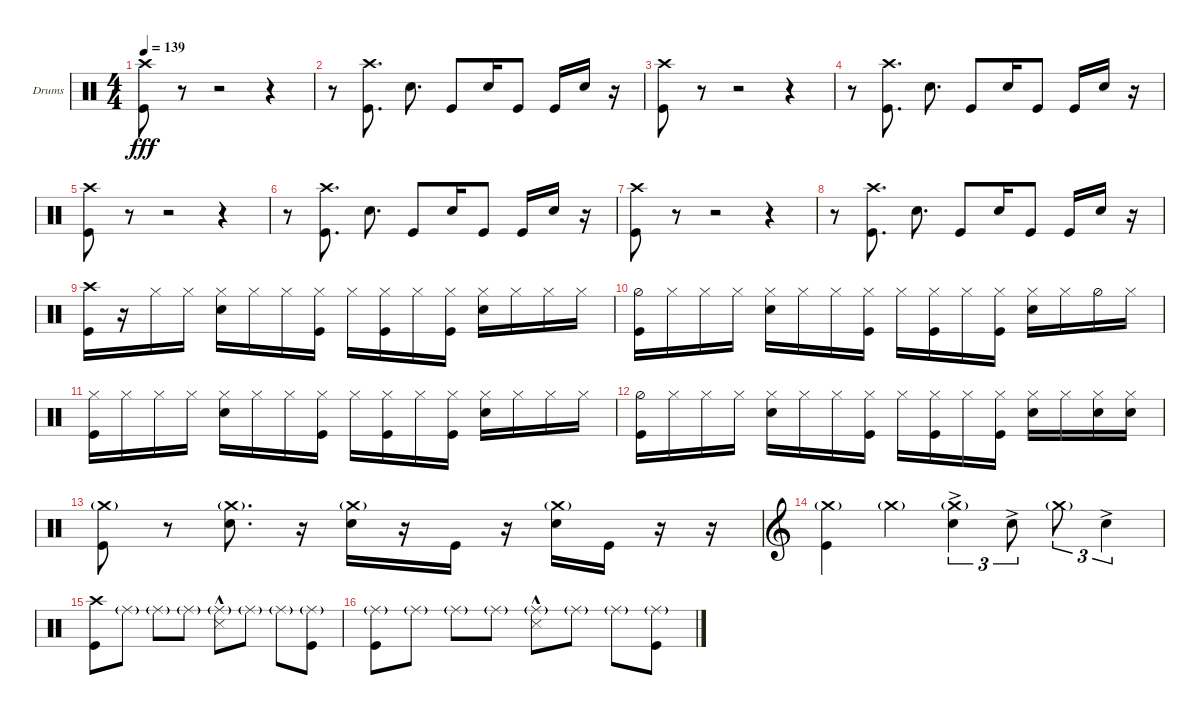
\defaultSystemsLayout 4
\bracketExtendMode groupsimilarinstruments
\firstSystemTrackNameOrientation horizontal
\otherSystemsTrackNameOrientation horizontal
\track ("Drumkit" "Drums") {instrument percussion}
\staff {score}
\articulation defaults
\ts (4 4)
\tempo 139
\clef neutral
\ks c
("Kick (hit)" "Crash high (hit)").8{dy fff} r.8 r.2 r.4 |
r.8 ("Crash high (hit)" "Kick (hit)").8{d} "Snare (hit) 2".8{d} "Kick (hit)".8 "Snare (hit) 2".16 "Kick (hit)".8 "Kick (hit)".16 "Snare (hit) 2".16 r.16 |
("Kick (hit)" "Crash high (hit)").8 r.8 r.2 r.4 |
r.8 ("Crash high (hit)" "Kick (hit)").8{d} "Snare (hit) 2".8{d} "Kick (hit)".8 "Snare (hit) 2".16 "Kick (hit)".8 "Kick (hit)".16 "Snare (hit) 2".16 r.16 |
("Kick (hit)" "Crash high (hit)").8 r.8 r.2 r.4 |
r.8 ("Crash high (hit)" "Kick (hit)").8{d} "Snare (hit) 2".8{d} "Kick (hit)".8 "Snare (hit) 2".16 "Kick (hit)".8 "Kick (hit)".16 "Snare (hit) 2".16 r.16 |
("Kick (hit)" "Crash high (hit)").8 r.8 r.2 r.4 |
r.8 ("Crash high (hit)" "Kick (hit)").8{d} "Snare (hit) 2".8{d} "Kick (hit)".8 "Snare (hit) 2".16 "Kick (hit)".8 "Kick (hit)".16 "Snare (hit) 2".16 r.16 |
("Kick (hit)" "Crash high (hit)").16 r.16 "Hi-Hat (closed)".16 "Hi-Hat (closed)".16 ("Hi-Hat (closed)" "Snare (hit) 2").16 "Hi-Hat (closed)".16 "Hi-Hat (closed)".16 ("Hi-Hat (closed)" "Kick (hit)").16 "Hi-Hat (closed)".16 ("Hi-Hat (closed)" "Kick (hit)").16 "Hi-Hat (closed)".16 ("Hi-Hat (closed)" "Kick (hit)").16 ("Hi-Hat (closed)" "Snare (hit) 2").16 "Hi-Hat (closed)".16 "Hi-Hat (closed)".16 "Hi-Hat (closed)".16 |
("Hi-Hat (half)" "Kick (hit)").16 "Hi-Hat (closed)".16 "Hi-Hat (closed)".16 "Hi-Hat (closed)".16 ("Hi-Hat (closed)" "Snare (hit) 2").16 "Hi-Hat (closed)".16 "Hi-Hat (closed)".16 ("Hi-Hat (closed)" "Kick (hit)").16 "Hi-Hat (closed)".16 ("Hi-Hat (closed)" "Kick (hit)").16 "Hi-Hat (closed)".16 ("Hi-Hat (closed)" "Kick (hit)").16 ("Hi-Hat (closed)" "Snare (hit) 2").16 "Hi-Hat (closed)".16 "Hi-Hat (half)".16 "Hi-Hat (closed)".16 |
("Hi-Hat (closed)" "Kick (hit)").16 "Hi-Hat (closed)".16 "Hi-Hat (closed)".16 "Hi-Hat (closed)".16 ("Hi-Hat (closed)" "Snare (hit) 2").16 "Hi-Hat (closed)".16 "Hi-Hat (closed)".16 ("Hi-Hat (closed)" "Kick (hit)").16 "Hi-Hat (closed)".16 ("Hi-Hat (closed)" "Kick (hit)").16 "Hi-Hat (closed)".16 ("Hi-Hat (closed)" "Kick (hit)").16 ("Hi-Hat (closed)" "Snare (hit) 2").16 "Hi-Hat (closed)".16 "Hi-Hat (closed)".16 "Hi-Hat (closed)".16 |
("Hi-Hat (half)" "Kick (hit)").16 "Hi-Hat (closed)".16 "Hi-Hat (closed)".16 "Hi-Hat (closed)".16 ("Hi-Hat (closed)" "Snare (hit) 2").16 "Hi-Hat (closed)".16 "Hi-Hat (closed)".16 ("Hi-Hat (closed)" "Kick (hit)").16 "Hi-Hat (closed)".16 ("Hi-Hat (closed)" "Kick (hit)").16 "Hi-Hat (closed)".16 ("Hi-Hat (closed)" "Kick (hit)").16 ("Hi-Hat (closed)" "Snare (hit) 2").16 "Hi-Hat (closed)".16 ("Hi-Hat (closed)" "Snare (hit) 2").16 ("Hi-Hat (closed)" "Snare (hit) 2").16 |
("Kick (hit)" "Crash medium (hit)"{g}).8 r.8 ("Snare (hit) 2" "Crash medium (hit)"{g}).8{d} r.16 ("Snare (hit) 2" "Crash medium (hit)"{g}).16 r.16 "Kick (hit)".16 r.16 ("Snare (hit) 2" "Crash medium (hit)"{g}).16 "Kick (hit)".16 r.16 r.16 |
\clef g2
("Kick (hit)" "Crash medium (hit)"{g}).4 "Crash medium (hit)"{g}.4 ("Snare (hit) 2"{ac} "Crash medium (hit)"{g}).4{tu (3 2)} "Snare (hit) 2"{ac}.8{tu (3 2)} "Crash medium (hit)"{g}.8{tu (3 2)} "Snare (hit) 2"{ac}.4{tu (3 2)} |
\clef neutral
("Kick (hit)" "Crash high (hit)").8 "Ride (middle)"{g}.8 "Ride (middle)"{g}.8 "Ride (middle)"{g}.8 ("Ride (middle)"{g} "Snare (side stick) 3"{hac}).8 "Ride (middle)"{g}.8 "Ride (middle)"{g}.8 ("Ride (middle)"{g} "Kick (hit)").8 |
("Kick (hit)" "Ride (middle)"{g}).8 "Ride (middle)"{g}.8 "Ride (middle)"{g}.8 "Ride (middle)"{g}.8 ("Ride (middle)"{g} "Snare (side stick) 3"{hac}).8 "Ride (middle)"{g}.8 "Ride (middle)"{g}.8 ("Ride (middle)"{g} "Kick (hit)").8
